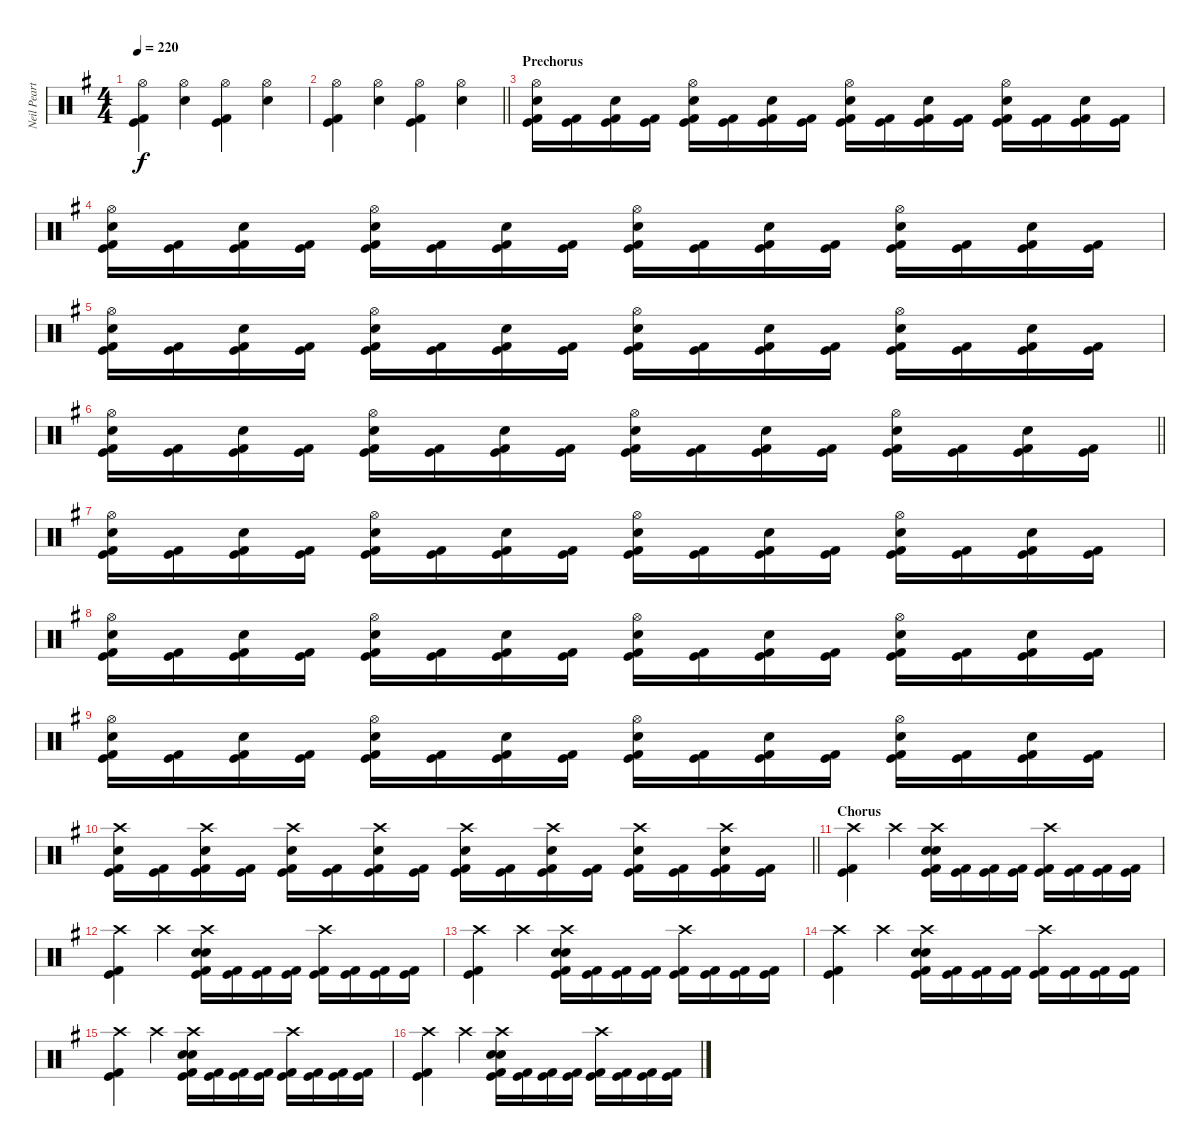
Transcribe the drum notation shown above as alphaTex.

\track ("Neil Peart" "Neil Peart") {instrument percussion}
\staff {score}
\articulation defaults
\ts (4 4)
\tempo 220
\clef neutral
\ks g
("Hi-Hat (open)" "Kick (hit) 2" "Kick (hit)").4{dy f} ("Hi-Hat (open)" "Snare (hit) 2").4 ("Hi-Hat (open)" "Kick (hit) 2" "Kick (hit)").4 ("Hi-Hat (open)" "Snare (hit) 2").4 |
\barLineRight lightlight
("Hi-Hat (open)" "Kick (hit) 2" "Kick (hit)").4 ("Hi-Hat (open)" "Snare (hit) 2").4 ("Hi-Hat (open)" "Kick (hit) 2" "Kick (hit)").4 ("Hi-Hat (open)" "Snare (hit) 2").4 |
\section ("" "Prechorus")
("Hi-Hat (open)" "Kick (hit)" "Kick (hit) 2" "Snare (hit) 2").16{balance 8} ("Kick (hit)" "Kick (hit) 2").16 ("Kick (hit)" "Kick (hit) 2" "Snare (hit) 2").16 ("Kick (hit)" "Kick (hit) 2").16 ("Hi-Hat (open)" "Kick (hit)" "Kick (hit) 2" "Snare (hit) 2").16 ("Kick (hit)" "Kick (hit) 2").16 ("Kick (hit)" "Kick (hit) 2" "Snare (hit) 2").16 ("Kick (hit)" "Kick (hit) 2").16 ("Hi-Hat (open)" "Kick (hit)" "Kick (hit) 2" "Snare (hit) 2").16 ("Kick (hit)" "Kick (hit) 2").16 ("Kick (hit)" "Kick (hit) 2" "Snare (hit) 2").16 ("Kick (hit)" "Kick (hit) 2").16 ("Hi-Hat (open)" "Kick (hit)" "Kick (hit) 2" "Snare (hit) 2").16 ("Kick (hit)" "Kick (hit) 2").16 ("Kick (hit)" "Kick (hit) 2" "Snare (hit) 2").16 ("Kick (hit)" "Kick (hit) 2").16 |
("Hi-Hat (open)" "Kick (hit)" "Kick (hit) 2" "Snare (hit) 2").16{balance 8} ("Kick (hit)" "Kick (hit) 2").16 ("Kick (hit)" "Kick (hit) 2" "Snare (hit) 2").16 ("Kick (hit)" "Kick (hit) 2").16 ("Hi-Hat (open)" "Kick (hit)" "Kick (hit) 2" "Snare (hit) 2").16 ("Kick (hit)" "Kick (hit) 2").16 ("Kick (hit)" "Kick (hit) 2" "Snare (hit) 2").16 ("Kick (hit)" "Kick (hit) 2").16 ("Hi-Hat (open)" "Kick (hit)" "Kick (hit) 2" "Snare (hit) 2").16 ("Kick (hit)" "Kick (hit) 2").16 ("Kick (hit)" "Kick (hit) 2" "Snare (hit) 2").16 ("Kick (hit)" "Kick (hit) 2").16 ("Hi-Hat (open)" "Kick (hit)" "Kick (hit) 2" "Snare (hit) 2").16 ("Kick (hit)" "Kick (hit) 2").16 ("Kick (hit)" "Kick (hit) 2" "Snare (hit) 2").16 ("Kick (hit)" "Kick (hit) 2").16 |
("Hi-Hat (open)" "Kick (hit)" "Kick (hit) 2" "Snare (hit) 2").16{balance 8} ("Kick (hit)" "Kick (hit) 2").16 ("Kick (hit)" "Kick (hit) 2" "Snare (hit) 2").16 ("Kick (hit)" "Kick (hit) 2").16 ("Hi-Hat (open)" "Kick (hit)" "Kick (hit) 2" "Snare (hit) 2").16 ("Kick (hit)" "Kick (hit) 2").16 ("Kick (hit)" "Kick (hit) 2" "Snare (hit) 2").16 ("Kick (hit)" "Kick (hit) 2").16 ("Hi-Hat (open)" "Kick (hit)" "Kick (hit) 2" "Snare (hit) 2").16 ("Kick (hit)" "Kick (hit) 2").16 ("Kick (hit)" "Kick (hit) 2" "Snare (hit) 2").16 ("Kick (hit)" "Kick (hit) 2").16 ("Hi-Hat (open)" "Kick (hit)" "Kick (hit) 2" "Snare (hit) 2").16 ("Kick (hit)" "Kick (hit) 2").16 ("Kick (hit)" "Kick (hit) 2" "Snare (hit) 2").16 ("Kick (hit)" "Kick (hit) 2").16 |
\barLineRight lightlight
("Hi-Hat (open)" "Kick (hit)" "Kick (hit) 2" "Snare (hit) 2").16{balance 8} ("Kick (hit)" "Kick (hit) 2").16 ("Kick (hit)" "Kick (hit) 2" "Snare (hit) 2").16 ("Kick (hit)" "Kick (hit) 2").16 ("Hi-Hat (open)" "Kick (hit)" "Kick (hit) 2" "Snare (hit) 2").16 ("Kick (hit)" "Kick (hit) 2").16 ("Kick (hit)" "Kick (hit) 2" "Snare (hit) 2").16 ("Kick (hit)" "Kick (hit) 2").16 ("Hi-Hat (open)" "Kick (hit)" "Kick (hit) 2" "Snare (hit) 2").16 ("Kick (hit)" "Kick (hit) 2").16 ("Kick (hit)" "Kick (hit) 2" "Snare (hit) 2").16 ("Kick (hit)" "Kick (hit) 2").16 ("Hi-Hat (open)" "Kick (hit)" "Kick (hit) 2" "Snare (hit) 2").16 ("Kick (hit)" "Kick (hit) 2").16 ("Kick (hit)" "Kick (hit) 2" "Snare (hit) 2").16 ("Kick (hit)" "Kick (hit) 2").16 |
("Hi-Hat (open)" "Kick (hit)" "Kick (hit) 2" "Snare (hit) 2").16{balance 8} ("Kick (hit)" "Kick (hit) 2").16 ("Kick (hit)" "Kick (hit) 2" "Snare (hit) 2").16 ("Kick (hit)" "Kick (hit) 2").16 ("Hi-Hat (open)" "Kick (hit)" "Kick (hit) 2" "Snare (hit) 2").16 ("Kick (hit)" "Kick (hit) 2").16 ("Kick (hit)" "Kick (hit) 2" "Snare (hit) 2").16 ("Kick (hit)" "Kick (hit) 2").16 ("Hi-Hat (open)" "Kick (hit)" "Kick (hit) 2" "Snare (hit) 2").16 ("Kick (hit)" "Kick (hit) 2").16 ("Kick (hit)" "Kick (hit) 2" "Snare (hit) 2").16 ("Kick (hit)" "Kick (hit) 2").16 ("Hi-Hat (open)" "Kick (hit)" "Kick (hit) 2" "Snare (hit) 2").16 ("Kick (hit)" "Kick (hit) 2").16 ("Kick (hit)" "Kick (hit) 2" "Snare (hit) 2").16 ("Kick (hit)" "Kick (hit) 2").16 |
("Hi-Hat (open)" "Kick (hit)" "Kick (hit) 2" "Snare (hit) 2").16{balance 8} ("Kick (hit)" "Kick (hit) 2").16 ("Kick (hit)" "Kick (hit) 2" "Snare (hit) 2").16 ("Kick (hit)" "Kick (hit) 2").16 ("Hi-Hat (open)" "Kick (hit)" "Kick (hit) 2" "Snare (hit) 2").16 ("Kick (hit)" "Kick (hit) 2").16 ("Kick (hit)" "Kick (hit) 2" "Snare (hit) 2").16 ("Kick (hit)" "Kick (hit) 2").16 ("Hi-Hat (open)" "Kick (hit)" "Kick (hit) 2" "Snare (hit) 2").16 ("Kick (hit)" "Kick (hit) 2").16 ("Kick (hit)" "Kick (hit) 2" "Snare (hit) 2").16 ("Kick (hit)" "Kick (hit) 2").16 ("Hi-Hat (open)" "Kick (hit)" "Kick (hit) 2" "Snare (hit) 2").16 ("Kick (hit)" "Kick (hit) 2").16 ("Kick (hit)" "Kick (hit) 2" "Snare (hit) 2").16 ("Kick (hit)" "Kick (hit) 2").16 |
("Hi-Hat (open)" "Kick (hit)" "Kick (hit) 2" "Snare (hit) 2").16{balance 8} ("Kick (hit)" "Kick (hit) 2").16 ("Kick (hit)" "Kick (hit) 2" "Snare (hit) 2").16 ("Kick (hit)" "Kick (hit) 2").16 ("Hi-Hat (open)" "Kick (hit)" "Kick (hit) 2" "Snare (hit) 2").16 ("Kick (hit)" "Kick (hit) 2").16 ("Kick (hit)" "Kick (hit) 2" "Snare (hit) 2").16 ("Kick (hit)" "Kick (hit) 2").16 ("Hi-Hat (open)" "Kick (hit)" "Kick (hit) 2" "Snare (hit) 2").16 ("Kick (hit)" "Kick (hit) 2").16 ("Kick (hit)" "Kick (hit) 2" "Snare (hit) 2").16 ("Kick (hit)" "Kick (hit) 2").16 ("Hi-Hat (open)" "Kick (hit)" "Kick (hit) 2" "Snare (hit) 2").16 ("Kick (hit)" "Kick (hit) 2").16 ("Kick (hit)" "Kick (hit) 2" "Snare (hit) 2").16 ("Kick (hit)" "Kick (hit) 2").16 |
\barLineRight lightlight
("Crash high (hit)" "Kick (hit)" "Kick (hit) 2" "Snare (hit) 2").16{balance 8} ("Kick (hit)" "Kick (hit) 2").16 ("Crash high (hit)" "Kick (hit)" "Kick (hit) 2" "Snare (hit) 2").16 ("Kick (hit)" "Kick (hit) 2").16 ("Crash high (hit)" "Kick (hit)" "Kick (hit) 2" "Snare (hit) 2").16 ("Kick (hit)" "Kick (hit) 2").16 ("Crash high (hit)" "Kick (hit)" "Kick (hit) 2" "Snare (hit) 2").16 ("Kick (hit)" "Kick (hit) 2").16 ("Crash high (hit)" "Kick (hit)" "Kick (hit) 2" "Snare (hit) 2").16 ("Kick (hit)" "Kick (hit) 2").16 ("Crash high (hit)" "Kick (hit)" "Kick (hit) 2" "Snare (hit) 2").16 ("Kick (hit)" "Kick (hit) 2").16 ("Crash high (hit)" "Kick (hit)" "Kick (hit) 2" "Snare (hit) 2").16 ("Kick (hit)" "Kick (hit) 2").16 ("Crash high (hit)" "Kick (hit)" "Kick (hit) 2" "Snare (hit) 2").16 ("Kick (hit)" "Kick (hit) 2").16 |
\section ("" "Chorus")
("Crash high (hit)" "Kick (hit)" "Kick (hit) 2").4 "Crash high (hit)".4 ("Snare (hit) 2" "Crash high (hit)" "Snare (hit) 2" "Kick (hit)" "Kick (hit) 2").16 ("Kick (hit)" "Kick (hit) 2").16 ("Kick (hit)" "Kick (hit) 2").16 ("Kick (hit)" "Kick (hit) 2").16 ("Crash high (hit)" "Kick (hit)" "Kick (hit) 2").16 ("Kick (hit)" "Kick (hit) 2").16 ("Kick (hit)" "Kick (hit) 2").16 ("Kick (hit)" "Kick (hit) 2").16 |
("Crash high (hit)" "Kick (hit)" "Kick (hit) 2").4 "Crash high (hit)".4 ("Snare (hit) 2" "Crash high (hit)" "Snare (hit) 2" "Kick (hit)" "Kick (hit) 2").16 ("Kick (hit)" "Kick (hit) 2").16 ("Kick (hit)" "Kick (hit) 2").16 ("Kick (hit)" "Kick (hit) 2").16 ("Crash high (hit)" "Kick (hit)" "Kick (hit) 2").16 ("Kick (hit)" "Kick (hit) 2").16 ("Kick (hit)" "Kick (hit) 2").16 ("Kick (hit)" "Kick (hit) 2").16 |
("Crash high (hit)" "Kick (hit)" "Kick (hit) 2").4 "Crash high (hit)".4 ("Snare (hit) 2" "Crash high (hit)" "Snare (hit) 2" "Kick (hit)" "Kick (hit) 2").16 ("Kick (hit)" "Kick (hit) 2").16 ("Kick (hit)" "Kick (hit) 2").16 ("Kick (hit)" "Kick (hit) 2").16 ("Crash high (hit)" "Kick (hit)" "Kick (hit) 2").16 ("Kick (hit)" "Kick (hit) 2").16 ("Kick (hit)" "Kick (hit) 2").16 ("Kick (hit)" "Kick (hit) 2").16 |
("Crash high (hit)" "Kick (hit)" "Kick (hit) 2").4 "Crash high (hit)".4 ("Snare (hit) 2" "Crash high (hit)" "Snare (hit) 2" "Kick (hit)" "Kick (hit) 2").16 ("Kick (hit)" "Kick (hit) 2").16 ("Kick (hit)" "Kick (hit) 2").16 ("Kick (hit)" "Kick (hit) 2").16 ("Crash high (hit)" "Kick (hit)" "Kick (hit) 2").16 ("Kick (hit)" "Kick (hit) 2").16 ("Kick (hit)" "Kick (hit) 2").16 ("Kick (hit)" "Kick (hit) 2").16 |
("Crash high (hit)" "Kick (hit)" "Kick (hit) 2").4 "Crash high (hit)".4 ("Snare (hit) 2" "Crash high (hit)" "Snare (hit) 2" "Kick (hit)" "Kick (hit) 2").16 ("Kick (hit)" "Kick (hit) 2").16 ("Kick (hit)" "Kick (hit) 2").16 ("Kick (hit)" "Kick (hit) 2").16 ("Crash high (hit)" "Kick (hit)" "Kick (hit) 2").16 ("Kick (hit)" "Kick (hit) 2").16 ("Kick (hit)" "Kick (hit) 2").16 ("Kick (hit)" "Kick (hit) 2").16 |
("Crash high (hit)" "Kick (hit)" "Kick (hit) 2").4 "Crash high (hit)".4 ("Snare (hit) 2" "Crash high (hit)" "Snare (hit) 2" "Kick (hit)" "Kick (hit) 2").16 ("Kick (hit)" "Kick (hit) 2").16 ("Kick (hit)" "Kick (hit) 2").16 ("Kick (hit)" "Kick (hit) 2").16 ("Crash high (hit)" "Kick (hit)" "Kick (hit) 2").16 ("Kick (hit)" "Kick (hit) 2").16 ("Kick (hit)" "Kick (hit) 2").16 ("Kick (hit)" "Kick (hit) 2").16
